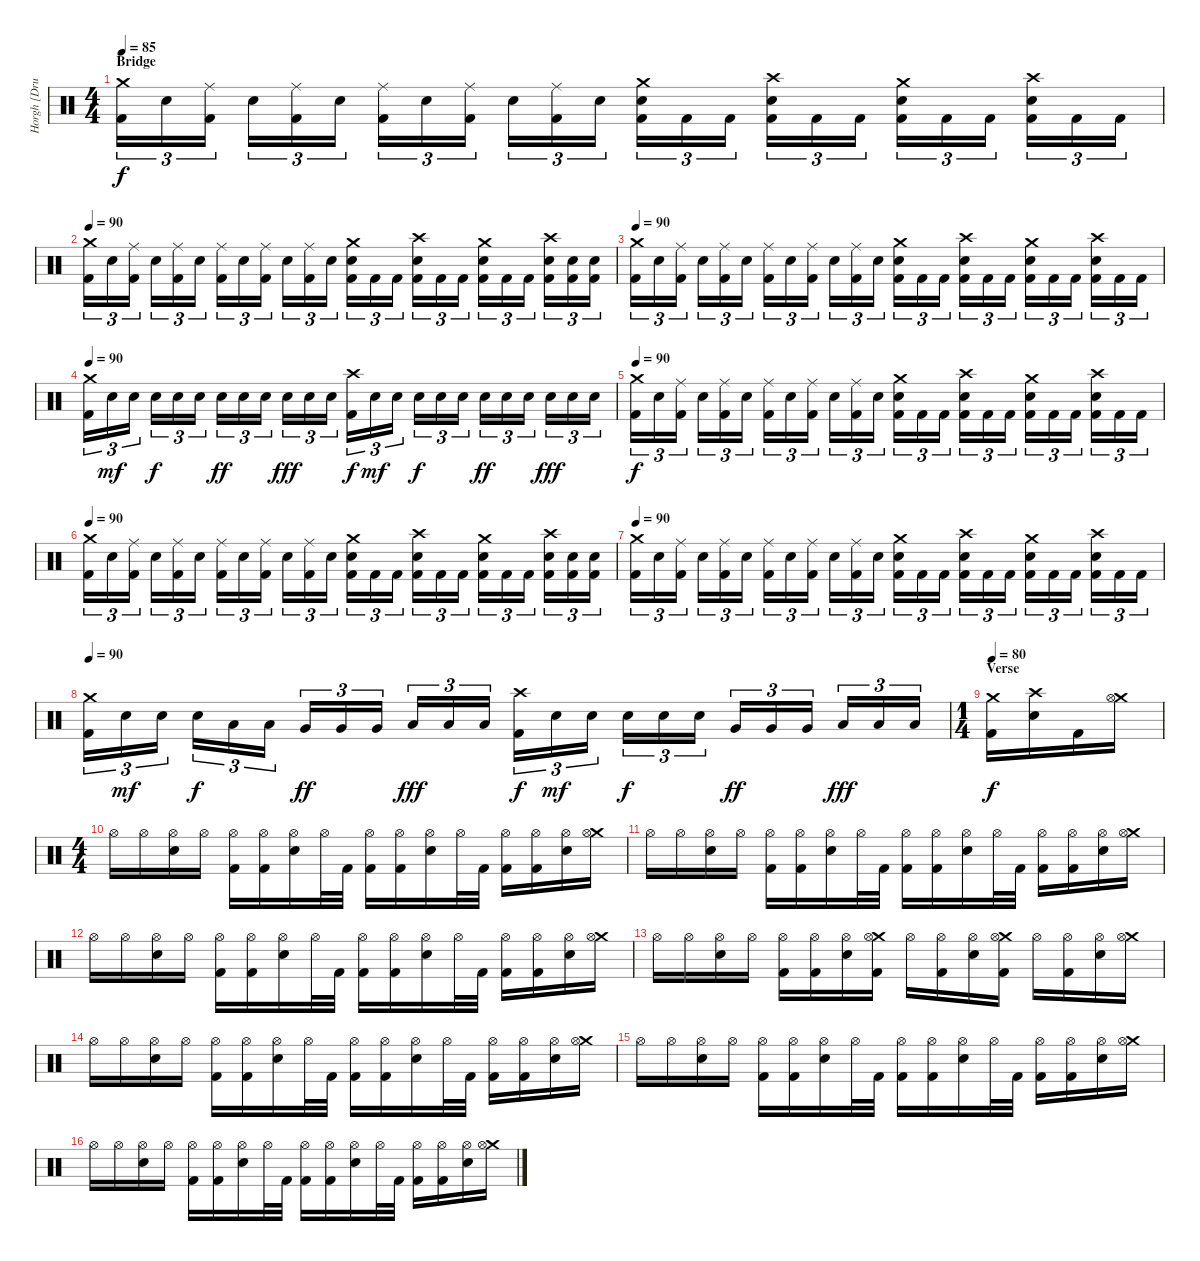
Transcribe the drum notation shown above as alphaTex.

\track ("Horgh [Drums]" "Horgh [Dru") {instrument percussion}
\staff {score}
\articulation defaults
\ts (4 4)
\section ("" "Bridge")
\tempo 85
\tempo 90
\tempo 85
\clef neutral
\ks c
("Crash medium (hit)" "Kick (hit) 2").16{tu (3 2) dy f} "Snare (hit) 2".16{tu (3 2)} ("Ride (middle)" "Kick (hit) 2").16{tu (3 2)} "Snare (hit) 2".16{tu (3 2)} ("Ride (middle)" "Kick (hit) 2").16{tu (3 2)} "Snare (hit) 2".16{tu (3 2)} ("Ride (middle)" "Kick (hit) 2").16{tu (3 2)} "Snare (hit) 2".16{tu (3 2)} ("Ride (middle)" "Kick (hit) 2").16{tu (3 2)} "Snare (hit) 2".16{tu (3 2)} ("Ride (middle)" "Kick (hit) 2").16{tu (3 2)} "Snare (hit) 2".16{tu (3 2)} ("Crash medium (hit)" "Snare (hit) 2" "Kick (hit) 2").16{tu (3 2)} "Kick (hit) 2".16{tu (3 2)} "Kick (hit) 2".16{tu (3 2)} ("Crash high (hit)" "Snare (hit) 2" "Kick (hit) 2").16{tu (3 2)} "Kick (hit) 2".16{tu (3 2)} "Kick (hit) 2".16{tu (3 2)} ("Crash medium (hit)" "Snare (hit) 2" "Kick (hit) 2").16{tu (3 2)} "Kick (hit) 2".16{tu (3 2)} "Kick (hit) 2".16{tu (3 2)} ("Crash high (hit)" "Snare (hit) 2" "Kick (hit) 2").16{tu (3 2)} "Kick (hit) 2".16{tu (3 2)} "Kick (hit) 2".16{tu (3 2)} |
\tempo 90
("Crash medium (hit)" "Kick (hit) 2").16{tu (3 2)} "Snare (hit) 2".16{tu (3 2)} ("Ride (middle)" "Kick (hit) 2").16{tu (3 2)} "Snare (hit) 2".16{tu (3 2)} ("Ride (middle)" "Kick (hit) 2").16{tu (3 2)} "Snare (hit) 2".16{tu (3 2)} ("Ride (middle)" "Kick (hit) 2").16{tu (3 2)} "Snare (hit) 2".16{tu (3 2)} ("Ride (middle)" "Kick (hit) 2").16{tu (3 2)} "Snare (hit) 2".16{tu (3 2)} ("Ride (middle)" "Kick (hit) 2").16{tu (3 2)} "Snare (hit) 2".16{tu (3 2)} ("Crash medium (hit)" "Snare (hit) 2" "Kick (hit) 2").16{tu (3 2)} "Kick (hit) 2".16{tu (3 2)} "Kick (hit) 2".16{tu (3 2)} ("Crash high (hit)" "Snare (hit) 2" "Kick (hit) 2").16{tu (3 2)} "Kick (hit) 2".16{tu (3 2)} "Kick (hit) 2".16{tu (3 2)} ("Crash medium (hit)" "Snare (hit) 2" "Kick (hit) 2").16{tu (3 2)} "Kick (hit) 2".16{tu (3 2)} "Kick (hit) 2".16{tu (3 2)} ("Crash high (hit)" "Snare (hit) 2" "Kick (hit) 2").16{tu (3 2)} ("Snare (hit) 2" "Kick (hit) 2").16{tu (3 2)} ("Snare (hit) 2" "Kick (hit) 2").16{tu (3 2)} |
\tempo 90
("Crash medium (hit)" "Kick (hit) 2").16{tu (3 2)} "Snare (hit) 2".16{tu (3 2)} ("Ride (middle)" "Kick (hit) 2").16{tu (3 2)} "Snare (hit) 2".16{tu (3 2)} ("Ride (middle)" "Kick (hit) 2").16{tu (3 2)} "Snare (hit) 2".16{tu (3 2)} ("Ride (middle)" "Kick (hit) 2").16{tu (3 2)} "Snare (hit) 2".16{tu (3 2)} ("Ride (middle)" "Kick (hit) 2").16{tu (3 2)} "Snare (hit) 2".16{tu (3 2)} ("Ride (middle)" "Kick (hit) 2").16{tu (3 2)} "Snare (hit) 2".16{tu (3 2)} ("Crash medium (hit)" "Snare (hit) 2" "Kick (hit) 2").16{tu (3 2)} "Kick (hit) 2".16{tu (3 2)} "Kick (hit) 2".16{tu (3 2)} ("Crash high (hit)" "Snare (hit) 2" "Kick (hit) 2").16{tu (3 2)} "Kick (hit) 2".16{tu (3 2)} "Kick (hit) 2".16{tu (3 2)} ("Crash medium (hit)" "Snare (hit) 2" "Kick (hit) 2").16{tu (3 2)} "Kick (hit) 2".16{tu (3 2)} "Kick (hit) 2".16{tu (3 2)} ("Crash high (hit)" "Snare (hit) 2" "Kick (hit) 2").16{tu (3 2)} "Kick (hit) 2".16{tu (3 2)} "Kick (hit) 2".16{tu (3 2)} |
\tempo 90
("Crash medium (hit)" "Kick (hit) 2").16{tu (3 2)} "Snare (hit) 2".16{tu (3 2) dy mf} "Snare (hit) 2".16{tu (3 2)} "Snare (hit) 2".16{tu (3 2) dy f} "Snare (hit) 2".16{tu (3 2)} "Snare (hit) 2".16{tu (3 2)} "Snare (hit) 2".16{tu (3 2) dy ff} "Snare (hit) 2".16{tu (3 2)} "Snare (hit) 2".16{tu (3 2)} "Snare (hit) 2".16{tu (3 2) dy fff} "Snare (hit) 2".16{tu (3 2)} "Snare (hit) 2".16{tu (3 2)} ("Crash high (hit)" "Kick (hit) 2").16{tu (3 2) dy f} "Snare (hit) 2".16{tu (3 2) dy mf} "Snare (hit) 2".16{tu (3 2)} "Snare (hit) 2".16{tu (3 2) dy f} "Snare (hit) 2".16{tu (3 2)} "Snare (hit) 2".16{tu (3 2)} "Snare (hit) 2".16{tu (3 2) dy ff} "Snare (hit) 2".16{tu (3 2)} "Snare (hit) 2".16{tu (3 2)} "Snare (hit) 2".16{tu (3 2) dy fff} "Snare (hit) 2".16{tu (3 2)} "Snare (hit) 2".16{tu (3 2)} |
\tempo 90
("Crash medium (hit)" "Kick (hit) 2").16{tu (3 2) dy f} "Snare (hit) 2".16{tu (3 2)} ("Ride (middle)" "Kick (hit) 2").16{tu (3 2)} "Snare (hit) 2".16{tu (3 2)} ("Ride (middle)" "Kick (hit) 2").16{tu (3 2)} "Snare (hit) 2".16{tu (3 2)} ("Ride (middle)" "Kick (hit) 2").16{tu (3 2)} "Snare (hit) 2".16{tu (3 2)} ("Ride (middle)" "Kick (hit) 2").16{tu (3 2)} "Snare (hit) 2".16{tu (3 2)} ("Ride (middle)" "Kick (hit) 2").16{tu (3 2)} "Snare (hit) 2".16{tu (3 2)} ("Crash medium (hit)" "Snare (hit) 2" "Kick (hit) 2").16{tu (3 2)} "Kick (hit) 2".16{tu (3 2)} "Kick (hit) 2".16{tu (3 2)} ("Crash high (hit)" "Snare (hit) 2" "Kick (hit) 2").16{tu (3 2)} "Kick (hit) 2".16{tu (3 2)} "Kick (hit) 2".16{tu (3 2)} ("Crash medium (hit)" "Snare (hit) 2" "Kick (hit) 2").16{tu (3 2)} "Kick (hit) 2".16{tu (3 2)} "Kick (hit) 2".16{tu (3 2)} ("Crash high (hit)" "Snare (hit) 2" "Kick (hit) 2").16{tu (3 2)} "Kick (hit) 2".16{tu (3 2)} "Kick (hit) 2".16{tu (3 2)} |
\tempo 90
("Crash medium (hit)" "Kick (hit) 2").16{tu (3 2)} "Snare (hit) 2".16{tu (3 2)} ("Ride (middle)" "Kick (hit) 2").16{tu (3 2)} "Snare (hit) 2".16{tu (3 2)} ("Ride (middle)" "Kick (hit) 2").16{tu (3 2)} "Snare (hit) 2".16{tu (3 2)} ("Ride (middle)" "Kick (hit) 2").16{tu (3 2)} "Snare (hit) 2".16{tu (3 2)} ("Ride (middle)" "Kick (hit) 2").16{tu (3 2)} "Snare (hit) 2".16{tu (3 2)} ("Ride (middle)" "Kick (hit) 2").16{tu (3 2)} "Snare (hit) 2".16{tu (3 2)} ("Crash medium (hit)" "Snare (hit) 2" "Kick (hit) 2").16{tu (3 2)} "Kick (hit) 2".16{tu (3 2)} "Kick (hit) 2".16{tu (3 2)} ("Crash high (hit)" "Snare (hit) 2" "Kick (hit) 2").16{tu (3 2)} "Kick (hit) 2".16{tu (3 2)} "Kick (hit) 2".16{tu (3 2)} ("Crash medium (hit)" "Snare (hit) 2" "Kick (hit) 2").16{tu (3 2)} "Kick (hit) 2".16{tu (3 2)} "Kick (hit) 2".16{tu (3 2)} ("Crash high (hit)" "Snare (hit) 2" "Kick (hit) 2").16{tu (3 2)} ("Snare (hit) 2" "Kick (hit) 2").16{tu (3 2)} ("Snare (hit) 2" "Kick (hit) 2").16{tu (3 2)} |
\tempo 90
("Crash medium (hit)" "Kick (hit) 2").16{tu (3 2)} "Snare (hit) 2".16{tu (3 2)} ("Ride (middle)" "Kick (hit) 2").16{tu (3 2)} "Snare (hit) 2".16{tu (3 2)} ("Ride (middle)" "Kick (hit) 2").16{tu (3 2)} "Snare (hit) 2".16{tu (3 2)} ("Ride (middle)" "Kick (hit) 2").16{tu (3 2)} "Snare (hit) 2".16{tu (3 2)} ("Ride (middle)" "Kick (hit) 2").16{tu (3 2)} "Snare (hit) 2".16{tu (3 2)} ("Ride (middle)" "Kick (hit) 2").16{tu (3 2)} "Snare (hit) 2".16{tu (3 2)} ("Crash medium (hit)" "Snare (hit) 2" "Kick (hit) 2").16{tu (3 2)} "Kick (hit) 2".16{tu (3 2)} "Kick (hit) 2".16{tu (3 2)} ("Crash high (hit)" "Snare (hit) 2" "Kick (hit) 2").16{tu (3 2)} "Kick (hit) 2".16{tu (3 2)} "Kick (hit) 2".16{tu (3 2)} ("Crash medium (hit)" "Snare (hit) 2" "Kick (hit) 2").16{tu (3 2)} "Kick (hit) 2".16{tu (3 2)} "Kick (hit) 2".16{tu (3 2)} ("Crash high (hit)" "Snare (hit) 2" "Kick (hit) 2").16{tu (3 2)} "Kick (hit) 2".16{tu (3 2)} "Kick (hit) 2".16{tu (3 2)} |
\tempo 90
("Crash medium (hit)" "Kick (hit) 2").16{tu (3 2)} "Snare (hit) 2".16{tu (3 2) dy mf} "Snare (hit) 2".16{tu (3 2)} "Snare (hit) 2".16{tu (3 2) dy f} "Low Tom (hit)".16{tu (3 2)} "Low Tom (hit)".16{tu (3 2)} "Very Low Tom (hit)".16{tu (3 2) dy ff} "Very Low Tom (hit)".16{tu (3 2)} "Very Low Tom (hit)".16{tu (3 2)} "Low Floor Tom (hit)".16{tu (3 2) dy fff} "Low Floor Tom (hit)".16{tu (3 2)} "Low Floor Tom (hit)".16{tu (3 2)} ("Crash high (hit)" "Kick (hit) 2").16{tu (3 2) dy f} "Snare (hit) 2".16{tu (3 2) dy mf} "Snare (hit) 2".16{tu (3 2)} "Snare (hit) 2".16{tu (3 2) dy f} "Snare (hit) 2".16{tu (3 2)} "Snare (hit) 2".16{tu (3 2)} "Very Low Tom (hit)".16{tu (3 2) dy ff} "Very Low Tom (hit)".16{tu (3 2)} "Very Low Tom (hit)".16{tu (3 2)} "Low Floor Tom (hit)".16{tu (3 2) dy fff} "Low Floor Tom (hit)".16{tu (3 2)} "Low Floor Tom (hit)".16{tu (3 2)} |
\ts (1 4)
\section ("" "Verse")
\tempo 80
("Crash medium (hit)" "Kick (hit) 2").16{dy f} ("Crash high (hit)" "Snare (hit) 2").16 "Kick (hit) 2".16 ("Crash medium (hit)" "Hi-Hat (open)").16 |
\ts (4 4)
"Hi-Hat (open)".16 "Hi-Hat (open)".16 ("Hi-Hat (open)" "Snare (hit) 2").16 "Hi-Hat (open)".16 ("Hi-Hat (open)" "Kick (hit) 2").16 ("Hi-Hat (open)" "Kick (hit) 2").16 ("Hi-Hat (open)" "Snare (hit) 2").16 "Hi-Hat (open)".32 "Kick (hit) 2".32 ("Hi-Hat (open)" "Kick (hit) 2").16 ("Hi-Hat (open)" "Kick (hit) 2").16 ("Hi-Hat (open)" "Snare (hit) 2").16 "Hi-Hat (open)".32 "Kick (hit) 2".32 ("Hi-Hat (open)" "Kick (hit) 2").16 ("Hi-Hat (open)" "Kick (hit) 2").16 ("Hi-Hat (open)" "Snare (hit) 2").16 ("Crash medium (hit)" "Hi-Hat (open)").16 |
"Hi-Hat (open)".16 "Hi-Hat (open)".16 ("Hi-Hat (open)" "Snare (hit) 2").16 "Hi-Hat (open)".16 ("Hi-Hat (open)" "Kick (hit) 2").16 ("Hi-Hat (open)" "Kick (hit) 2").16 ("Hi-Hat (open)" "Snare (hit) 2").16 "Hi-Hat (open)".32 "Kick (hit) 2".32 ("Hi-Hat (open)" "Kick (hit) 2").16 ("Hi-Hat (open)" "Kick (hit) 2").16 ("Hi-Hat (open)" "Snare (hit) 2").16 "Hi-Hat (open)".32 "Kick (hit) 2".32 ("Hi-Hat (open)" "Kick (hit) 2").16 ("Hi-Hat (open)" "Kick (hit) 2").16 ("Hi-Hat (open)" "Snare (hit) 2").16 ("Crash medium (hit)" "Hi-Hat (open)").16 |
"Hi-Hat (open)".16 "Hi-Hat (open)".16 ("Hi-Hat (open)" "Snare (hit) 2").16 "Hi-Hat (open)".16 ("Hi-Hat (open)" "Kick (hit) 2").16 ("Hi-Hat (open)" "Kick (hit) 2").16 ("Hi-Hat (open)" "Snare (hit) 2").16 "Hi-Hat (open)".32 "Kick (hit) 2".32 ("Hi-Hat (open)" "Kick (hit) 2").16 ("Hi-Hat (open)" "Kick (hit) 2").16 ("Hi-Hat (open)" "Snare (hit) 2").16 "Hi-Hat (open)".32 "Kick (hit) 2".32 ("Hi-Hat (open)" "Kick (hit) 2").16 ("Hi-Hat (open)" "Kick (hit) 2").16 ("Hi-Hat (open)" "Snare (hit) 2").16 ("Crash medium (hit)" "Hi-Hat (open)").16 |
"Hi-Hat (open)".16 "Hi-Hat (open)".16 ("Hi-Hat (open)" "Snare (hit) 2").16 "Hi-Hat (open)".16 ("Hi-Hat (open)" "Kick (hit) 2").16 ("Hi-Hat (open)" "Kick (hit) 2").16 ("Hi-Hat (open)" "Snare (hit) 2").16 ("Crash medium (hit)" "Hi-Hat (open)" "Kick (hit) 2").16 "Hi-Hat (open)".16 ("Hi-Hat (open)" "Kick (hit) 2").16 ("Hi-Hat (open)" "Snare (hit) 2").16 ("Crash medium (hit)" "Hi-Hat (open)" "Kick (hit) 2").16 "Hi-Hat (open)".16 ("Hi-Hat (open)" "Kick (hit) 2").16 ("Hi-Hat (open)" "Snare (hit) 2").16 ("Crash medium (hit)" "Hi-Hat (open)").16 |
"Hi-Hat (open)".16 "Hi-Hat (open)".16 ("Hi-Hat (open)" "Snare (hit) 2").16 "Hi-Hat (open)".16 ("Hi-Hat (open)" "Kick (hit) 2").16 ("Hi-Hat (open)" "Kick (hit) 2").16 ("Hi-Hat (open)" "Snare (hit) 2").16 "Hi-Hat (open)".32 "Kick (hit) 2".32 ("Hi-Hat (open)" "Kick (hit) 2").16 ("Hi-Hat (open)" "Kick (hit) 2").16 ("Hi-Hat (open)" "Snare (hit) 2").16 "Hi-Hat (open)".32 "Kick (hit) 2".32 ("Hi-Hat (open)" "Kick (hit) 2").16 ("Hi-Hat (open)" "Kick (hit) 2").16 ("Hi-Hat (open)" "Snare (hit) 2").16 ("Crash medium (hit)" "Hi-Hat (open)").16 |
"Hi-Hat (open)".16 "Hi-Hat (open)".16 ("Hi-Hat (open)" "Snare (hit) 2").16 "Hi-Hat (open)".16 ("Hi-Hat (open)" "Kick (hit) 2").16 ("Hi-Hat (open)" "Kick (hit) 2").16 ("Hi-Hat (open)" "Snare (hit) 2").16 "Hi-Hat (open)".32 "Kick (hit) 2".32 ("Hi-Hat (open)" "Kick (hit) 2").16 ("Hi-Hat (open)" "Kick (hit) 2").16 ("Hi-Hat (open)" "Snare (hit) 2").16 "Hi-Hat (open)".32 "Kick (hit) 2".32 ("Hi-Hat (open)" "Kick (hit) 2").16 ("Hi-Hat (open)" "Kick (hit) 2").16 ("Hi-Hat (open)" "Snare (hit) 2").16 ("Crash medium (hit)" "Hi-Hat (open)").16 |
"Hi-Hat (open)".16 "Hi-Hat (open)".16 ("Hi-Hat (open)" "Snare (hit) 2").16 "Hi-Hat (open)".16 ("Hi-Hat (open)" "Kick (hit) 2").16 ("Hi-Hat (open)" "Kick (hit) 2").16 ("Hi-Hat (open)" "Snare (hit) 2").16 "Hi-Hat (open)".32 "Kick (hit) 2".32 ("Hi-Hat (open)" "Kick (hit) 2").16 ("Hi-Hat (open)" "Kick (hit) 2").16 ("Hi-Hat (open)" "Snare (hit) 2").16 "Hi-Hat (open)".32 "Kick (hit) 2".32 ("Hi-Hat (open)" "Kick (hit) 2").16 ("Hi-Hat (open)" "Kick (hit) 2").16 ("Hi-Hat (open)" "Snare (hit) 2").16 ("Crash medium (hit)" "Hi-Hat (open)").16
